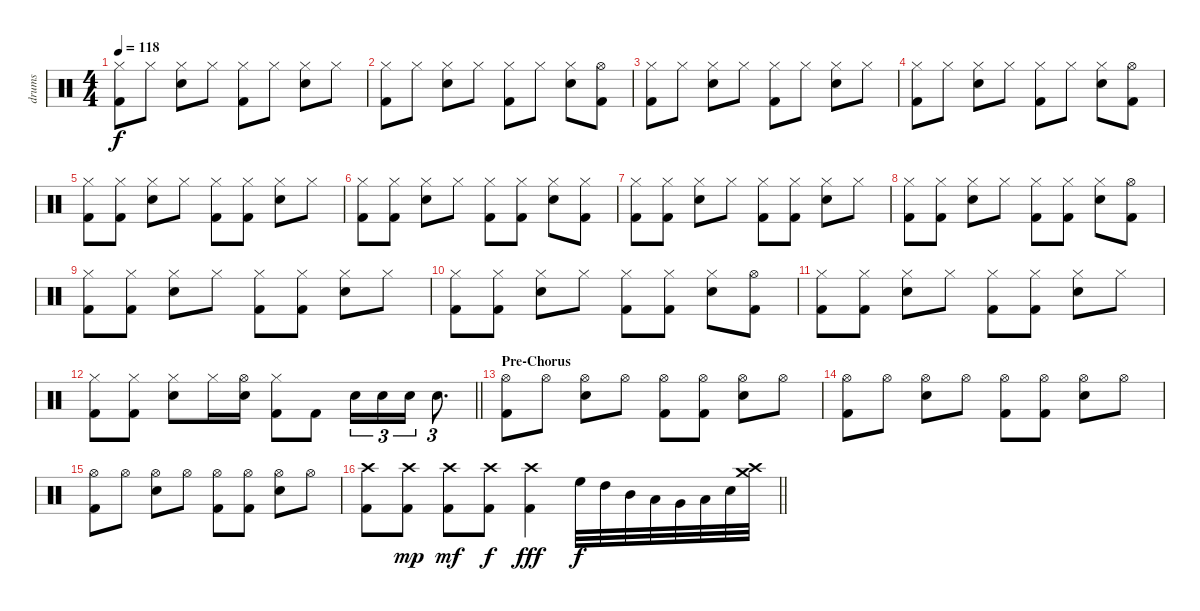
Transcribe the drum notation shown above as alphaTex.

\track ("drums" "drums") {instrument percussion}
\staff {score}
\articulation defaults
\ts (4 4)
\tempo 118
\clef neutral
\ks c
("Hi-Hat (closed)" "Kick (hit) 2").8{dy f} "Hi-Hat (closed)".8 ("Hi-Hat (closed)" "Electric Snare (hit)").8 "Hi-Hat (closed)".8 ("Hi-Hat (closed)" "Kick (hit) 2").8 "Hi-Hat (closed)".8 ("Hi-Hat (closed)" "Electric Snare (hit)").8 "Hi-Hat (closed)".8 |
("Hi-Hat (closed)" "Kick (hit) 2").8 "Hi-Hat (closed)".8 ("Hi-Hat (closed)" "Electric Snare (hit)").8 "Hi-Hat (closed)".8 ("Hi-Hat (closed)" "Kick (hit) 2").8 "Hi-Hat (closed)".8 ("Hi-Hat (closed)" "Electric Snare (hit)").8 ("Hi-Hat (open)" "Kick (hit) 2").8 |
("Hi-Hat (closed)" "Kick (hit) 2").8 "Hi-Hat (closed)".8 ("Hi-Hat (closed)" "Electric Snare (hit)").8 "Hi-Hat (closed)".8 ("Hi-Hat (closed)" "Kick (hit) 2").8 "Hi-Hat (closed)".8 ("Hi-Hat (closed)" "Electric Snare (hit)").8 "Hi-Hat (closed)".8 |
("Hi-Hat (closed)" "Kick (hit) 2").8 "Hi-Hat (closed)".8 ("Hi-Hat (closed)" "Electric Snare (hit)").8 "Hi-Hat (closed)".8 ("Hi-Hat (closed)" "Kick (hit) 2").8 "Hi-Hat (closed)".8 ("Hi-Hat (closed)" "Electric Snare (hit)").8 ("Hi-Hat (open)" "Kick (hit) 2").8 |
("Hi-Hat (closed)" "Kick (hit) 2").8 ("Hi-Hat (closed)" "Kick (hit) 2").8 ("Hi-Hat (closed)" "Electric Snare (hit)").8 "Hi-Hat (closed)".8 ("Hi-Hat (closed)" "Kick (hit) 2").8 ("Hi-Hat (closed)" "Kick (hit) 2").8 ("Hi-Hat (closed)" "Electric Snare (hit)").8 "Hi-Hat (closed)".8 |
("Hi-Hat (closed)" "Kick (hit) 2").8 ("Hi-Hat (closed)" "Kick (hit) 2").8 ("Hi-Hat (closed)" "Electric Snare (hit)").8 "Hi-Hat (closed)".8 ("Hi-Hat (closed)" "Kick (hit) 2").8 ("Hi-Hat (closed)" "Kick (hit) 2").8 ("Hi-Hat (closed)" "Electric Snare (hit)").8 ("Hi-Hat (closed)" "Kick (hit) 2").8 |
("Hi-Hat (closed)" "Kick (hit) 2").8 ("Hi-Hat (closed)" "Kick (hit) 2").8 ("Hi-Hat (closed)" "Electric Snare (hit)").8 "Hi-Hat (closed)".8 ("Hi-Hat (closed)" "Kick (hit) 2").8 ("Hi-Hat (closed)" "Kick (hit) 2").8 ("Hi-Hat (closed)" "Electric Snare (hit)").8 "Hi-Hat (closed)".8 |
("Hi-Hat (closed)" "Kick (hit) 2").8 ("Hi-Hat (closed)" "Kick (hit) 2").8 ("Hi-Hat (closed)" "Electric Snare (hit)").8 "Hi-Hat (closed)".8 ("Hi-Hat (closed)" "Kick (hit) 2").8 ("Hi-Hat (closed)" "Kick (hit) 2").8 ("Hi-Hat (closed)" "Electric Snare (hit)").8 ("Hi-Hat (open)" "Kick (hit) 2").8 |
("Hi-Hat (closed)" "Kick (hit) 2").8 ("Hi-Hat (closed)" "Kick (hit) 2").8 ("Hi-Hat (closed)" "Electric Snare (hit)").8 "Hi-Hat (closed)".8 ("Hi-Hat (closed)" "Kick (hit) 2").8 ("Hi-Hat (closed)" "Kick (hit) 2").8 ("Hi-Hat (closed)" "Electric Snare (hit)").8 "Hi-Hat (closed)".8 |
("Hi-Hat (closed)" "Kick (hit) 2").8 ("Hi-Hat (closed)" "Kick (hit) 2").8 ("Hi-Hat (closed)" "Electric Snare (hit)").8 "Hi-Hat (closed)".8 ("Hi-Hat (closed)" "Kick (hit) 2").8 ("Hi-Hat (closed)" "Kick (hit) 2").8 ("Hi-Hat (closed)" "Electric Snare (hit)").8 ("Hi-Hat (open)" "Kick (hit) 2").8 |
("Hi-Hat (closed)" "Kick (hit) 2").8 ("Hi-Hat (closed)" "Kick (hit) 2").8 ("Hi-Hat (closed)" "Electric Snare (hit)").8 "Hi-Hat (closed)".8 ("Hi-Hat (closed)" "Kick (hit) 2").8 ("Hi-Hat (closed)" "Kick (hit) 2").8 ("Hi-Hat (closed)" "Electric Snare (hit)").8 "Hi-Hat (closed)".8 |
\barLineRight lightlight
("Hi-Hat (closed)" "Kick (hit) 2").8 ("Hi-Hat (closed)" "Kick (hit) 2").8 ("Hi-Hat (closed)" "Electric Snare (hit)").8 "Hi-Hat (closed)".16 ("Hi-Hat (open)" "Electric Snare (hit)").16 ("Hi-Hat (closed)" "Kick (hit) 2").8 "Kick (hit) 2".8 "Electric Snare (hit)".16{tu (3 2)} "Electric Snare (hit)".16{tu (3 2)} "Electric Snare (hit)".16{tu (3 2)} "Electric Snare (hit)".8{d tu (3 2)} |
\section ("" "Pre-Chorus")
("Hi-Hat (open)" "Kick (hit) 2").8 "Hi-Hat (open)".8 ("Hi-Hat (open)" "Electric Snare (hit)").8 "Hi-Hat (open)".8 ("Hi-Hat (open)" "Kick (hit) 2").8 ("Hi-Hat (open)" "Kick (hit) 2").8 ("Hi-Hat (open)" "Electric Snare (hit)").8 "Hi-Hat (open)".8 |
("Hi-Hat (open)" "Kick (hit) 2").8 "Hi-Hat (open)".8 ("Hi-Hat (open)" "Electric Snare (hit)").8 "Hi-Hat (open)".8 ("Hi-Hat (open)" "Kick (hit) 2").8 ("Hi-Hat (open)" "Kick (hit) 2").8 ("Hi-Hat (open)" "Electric Snare (hit)").8 "Hi-Hat (open)".8 |
("Hi-Hat (open)" "Kick (hit) 2").8 "Hi-Hat (open)".8 ("Hi-Hat (open)" "Electric Snare (hit)").8 "Hi-Hat (open)".8 ("Hi-Hat (open)" "Kick (hit) 2").8 ("Hi-Hat (open)" "Kick (hit) 2").8 ("Hi-Hat (open)" "Electric Snare (hit)").8 "Hi-Hat (open)".8 |
\barLineRight lightlight
("Crash high (hit)" "Kick (hit) 2").8 ("Crash high (hit)" "Kick (hit) 2").8{dy mp} ("Crash high (hit)" "Kick (hit) 2").8{dy mf} ("Crash high (hit)" "Kick (hit) 2").8{dy f} ("Crash high (hit)" "Kick (hit) 2").4{dy fff} "High Floor Tom (hit)".32{dy f} "High Tom (hit)".32 "Mid Tom (hit)".32 "Low Tom (hit)".32 "Very Low Tom (hit)".32 "Low Floor Tom (hit)".32 "Electric Snare (hit)".32 ("Crash high (hit)" "Crash medium (hit)").32
